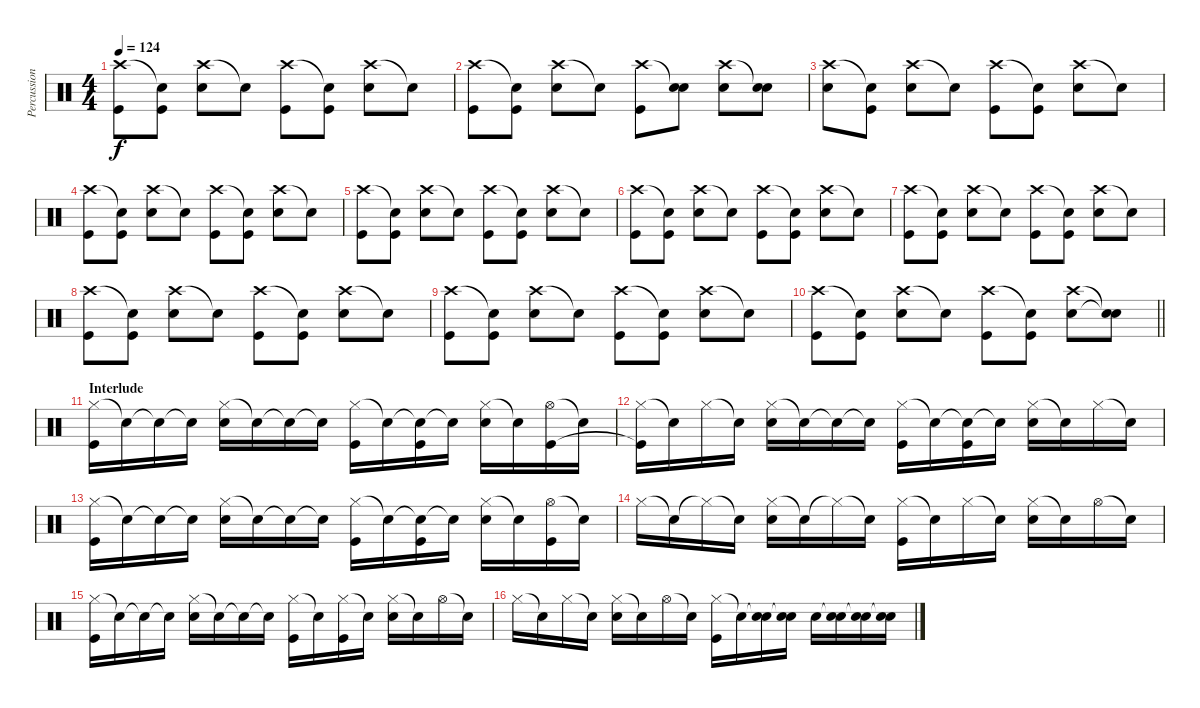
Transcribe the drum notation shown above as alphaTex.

\track ("Percussion" "Percussion") {instrument percussion}
\staff {score}
\articulation defaults
\ts (4 4)
\tempo 124
\clef neutral
\ks c
("Crash high (hit)" "Kick (hit)").8{dy f} ("Snare (hit)"{t} "Kick (hit)").8 ("Crash high (hit)" "Electric Snare (hit)").8 "Snare (hit)"{t}.8 ("Crash high (hit)" "Kick (hit)").8 ("Snare (hit)"{t} "Kick (hit)").8 ("Crash high (hit)" "Electric Snare (hit)").8 "Snare (hit)"{t}.8 |
("Crash high (hit)" "Kick (hit)").8 ("Snare (hit)"{t} "Kick (hit)").8 ("Crash high (hit)" "Electric Snare (hit)").8 "Snare (hit)"{t}.8 ("Crash high (hit)" "Kick (hit)").8 ("Snare (hit)"{t} "Electric Snare (hit)").8 ("Crash high (hit)" "Electric Snare (hit)").8 ("Snare (hit)"{t} "Electric Snare (hit)").8 |
("Crash high (hit)" "Electric Snare (hit)").8 ("Snare (hit)"{t} "Kick (hit)").8 ("Crash high (hit)" "Electric Snare (hit)").8 "Snare (hit)"{t}.8 ("Crash high (hit)" "Kick (hit)").8 ("Snare (hit)"{t} "Kick (hit)").8 ("Crash high (hit)" "Electric Snare (hit)").8 "Snare (hit)"{t}.8 |
("Crash high (hit)" "Kick (hit)").8 ("Snare (hit)"{t} "Kick (hit)").8 ("Crash high (hit)" "Electric Snare (hit)").8 "Snare (hit)"{t}.8 ("Crash high (hit)" "Kick (hit)").8 ("Snare (hit)"{t} "Kick (hit)").8 ("Crash high (hit)" "Electric Snare (hit)").8 "Snare (hit)"{t}.8 |
("Crash high (hit)" "Kick (hit)").8 ("Snare (hit)"{t} "Kick (hit)").8 ("Crash high (hit)" "Electric Snare (hit)").8 "Snare (hit)"{t}.8 ("Crash high (hit)" "Kick (hit)").8 ("Snare (hit)"{t} "Kick (hit)").8 ("Crash high (hit)" "Electric Snare (hit)").8 "Snare (hit)"{t}.8 |
("Crash high (hit)" "Kick (hit)").8 ("Snare (hit)"{t} "Kick (hit)").8 ("Crash high (hit)" "Electric Snare (hit)").8 "Snare (hit)"{t}.8 ("Crash high (hit)" "Kick (hit)").8 ("Snare (hit)"{t} "Kick (hit)").8 ("Crash high (hit)" "Electric Snare (hit)").8 "Snare (hit)"{t}.8 |
("Crash high (hit)" "Kick (hit)").8 ("Snare (hit)"{t} "Kick (hit)").8 ("Crash high (hit)" "Electric Snare (hit)").8 "Snare (hit)"{t}.8 ("Crash high (hit)" "Kick (hit)").8 ("Snare (hit)"{t} "Kick (hit)").8 ("Crash high (hit)" "Electric Snare (hit)").8 "Snare (hit)"{t}.8 |
("Crash high (hit)" "Kick (hit)").8 ("Snare (hit)"{t} "Kick (hit)").8 ("Crash high (hit)" "Electric Snare (hit)").8 "Snare (hit)"{t}.8 ("Crash high (hit)" "Kick (hit)").8 ("Snare (hit)"{t} "Kick (hit)").8 ("Crash high (hit)" "Electric Snare (hit)").8 "Snare (hit)"{t}.8 |
("Crash high (hit)" "Kick (hit)").8 ("Snare (hit)"{t} "Kick (hit)").8 ("Crash high (hit)" "Electric Snare (hit)").8 "Snare (hit)"{t}.8 ("Crash high (hit)" "Kick (hit)").8 ("Snare (hit)"{t} "Kick (hit)").8 ("Crash high (hit)" "Electric Snare (hit)").8 "Snare (hit)"{t}.8 |
\barLineRight lightlight
("Crash high (hit)" "Kick (hit)").8 ("Snare (hit)"{t} "Kick (hit)").8 ("Crash high (hit)" "Electric Snare (hit)").8 "Snare (hit)"{t}.8 ("Crash high (hit)" "Kick (hit)").8 ("Snare (hit)"{t} "Kick (hit)").8 ("Crash high (hit)" "Electric Snare (hit)").8 ("Snare (hit)"{t} "Electric Snare (hit)"{t}).8 |
\section ("" "Interlude")
("Hi-Hat (closed)" "Kick (hit)").16 "Snare (hit)"{t}.16 "Snare (hit)"{t}.16 "Snare (hit)"{t}.16 ("Hi-Hat (closed)" "Electric Snare (hit)").16 "Snare (hit)"{t}.16 "Snare (hit)"{t}.16 "Snare (hit)"{t}.16 ("Hi-Hat (closed)" "Kick (hit)").16 "Snare (hit)"{t}.16 ("Snare (hit)"{t} "Kick (hit)").16 "Snare (hit)"{t}.16 ("Hi-Hat (closed)" "Electric Snare (hit)").16 "Snare (hit)"{t}.16 ("Hi-Hat (open)" "Kick (hit)").16 "Snare (hit)"{t}.16 |
("Hi-Hat (closed)" "Kick (hit)"{t}).16 "Snare (hit)"{t}.16 "Hi-Hat (closed)".16 "Snare (hit)"{t}.16 ("Hi-Hat (closed)" "Electric Snare (hit)").16 "Snare (hit)"{t}.16 "Snare (hit)"{t}.16 "Snare (hit)"{t}.16 ("Hi-Hat (closed)" "Kick (hit)").16 "Snare (hit)"{t}.16 ("Snare (hit)"{t} "Kick (hit)").16 "Snare (hit)"{t}.16 ("Hi-Hat (closed)" "Electric Snare (hit)").16 "Snare (hit)"{t}.16 "Hi-Hat (closed)".16 "Snare (hit)"{t}.16 |
("Hi-Hat (closed)" "Kick (hit)").16 "Snare (hit)"{t}.16 "Snare (hit)"{t}.16 "Snare (hit)"{t}.16 ("Hi-Hat (closed)" "Electric Snare (hit)").16 "Snare (hit)"{t}.16 "Snare (hit)"{t}.16 "Snare (hit)"{t}.16 ("Hi-Hat (closed)" "Kick (hit)").16 "Snare (hit)"{t}.16 ("Snare (hit)"{t} "Kick (hit)").16 "Snare (hit)"{t}.16 ("Hi-Hat (closed)" "Electric Snare (hit)").16 "Snare (hit)"{t}.16 ("Hi-Hat (open)" "Kick (hit)").16 "Snare (hit)"{t}.16 |
"Hi-Hat (closed)".16 "Snare (hit)"{t}.16 "Hi-Hat (closed)"{t}.16 "Snare (hit)"{t}.16 ("Hi-Hat (closed)" "Electric Snare (hit)").16 "Snare (hit)"{t}.16 "Hi-Hat (closed)"{t}.16 "Snare (hit)"{t}.16 ("Hi-Hat (closed)" "Kick (hit)").16 "Snare (hit)"{t}.16 "Hi-Hat (closed)".16 "Snare (hit)"{t}.16 ("Hi-Hat (closed)" "Electric Snare (hit)").16 "Snare (hit)"{t}.16 "Hi-Hat (open)".16 "Snare (hit)"{t}.16 |
("Hi-Hat (closed)" "Kick (hit)").16 "Snare (hit)"{t}.16 "Snare (hit)"{t}.16 "Snare (hit)"{t}.16 ("Hi-Hat (closed)" "Electric Snare (hit)").16 "Snare (hit)"{t}.16 "Snare (hit)"{t}.16 "Snare (hit)"{t}.16 ("Hi-Hat (closed)" "Kick (hit)").16 "Snare (hit)"{t}.16 ("Hi-Hat (closed)" "Kick (hit)").16 "Snare (hit)"{t}.16 ("Hi-Hat (closed)" "Electric Snare (hit)").16 "Snare (hit)"{t}.16 "Hi-Hat (open)".16 "Snare (hit)"{t}.16 |
"Hi-Hat (closed)".16 "Snare (hit)"{t}.16 "Hi-Hat (closed)".16 "Snare (hit)"{t}.16 ("Hi-Hat (closed)" "Electric Snare (hit)").16 "Snare (hit)"{t}.16 "Hi-Hat (open)".16 "Snare (hit)"{t}.16 ("Hi-Hat (closed)" "Kick (hit)").16 "Snare (hit)"{t}.16 ("Snare (hit)"{t} "Electric Snare (hit)").16 ("Snare (hit)"{t} "Electric Snare (hit)").16 "Electric Snare (hit)".16 ("Snare (hit)"{t} "Electric Snare (hit)").16 ("Snare (hit)"{t} "Electric Snare (hit)").16 ("Snare (hit)"{t} "Electric Snare (hit)").16
